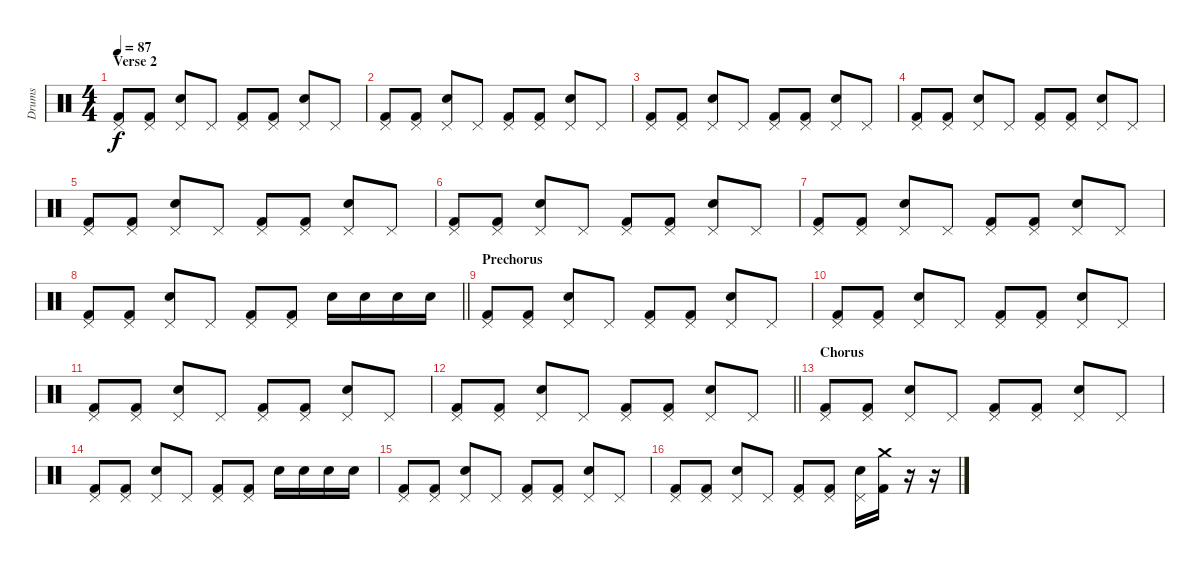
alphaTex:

\track ("Drums" "Drums") {instrument percussion}
\staff {score}
\articulation defaults
\ts (4 4)
\section ("" "Verse 2")
\tempo 87
\clef neutral
\ks c
("Pedal Hi-Hat (hit)" "Kick (hit) 2").8{dy f} ("Pedal Hi-Hat (hit)" "Kick (hit) 2").8 ("Pedal Hi-Hat (hit)" "Snare (hit) 2").8 "Pedal Hi-Hat (hit)".8 ("Pedal Hi-Hat (hit)" "Kick (hit) 2").8 ("Pedal Hi-Hat (hit)" "Kick (hit) 2").8 ("Pedal Hi-Hat (hit)" "Snare (hit) 2").8 "Pedal Hi-Hat (hit)".8 |
("Pedal Hi-Hat (hit)" "Kick (hit) 2").8 ("Pedal Hi-Hat (hit)" "Kick (hit) 2").8 ("Pedal Hi-Hat (hit)" "Snare (hit) 2").8 "Pedal Hi-Hat (hit)".8 ("Pedal Hi-Hat (hit)" "Kick (hit) 2").8 ("Pedal Hi-Hat (hit)" "Kick (hit) 2").8 ("Pedal Hi-Hat (hit)" "Snare (hit) 2").8 "Pedal Hi-Hat (hit)".8 |
("Pedal Hi-Hat (hit)" "Kick (hit) 2").8 ("Pedal Hi-Hat (hit)" "Kick (hit) 2").8 ("Pedal Hi-Hat (hit)" "Snare (hit) 2").8 "Pedal Hi-Hat (hit)".8 ("Pedal Hi-Hat (hit)" "Kick (hit) 2").8 ("Pedal Hi-Hat (hit)" "Kick (hit) 2").8 ("Pedal Hi-Hat (hit)" "Snare (hit) 2").8 "Pedal Hi-Hat (hit)".8 |
("Pedal Hi-Hat (hit)" "Kick (hit) 2").8 ("Pedal Hi-Hat (hit)" "Kick (hit) 2").8 ("Pedal Hi-Hat (hit)" "Snare (hit) 2").8 "Pedal Hi-Hat (hit)".8 ("Pedal Hi-Hat (hit)" "Kick (hit) 2").8 ("Pedal Hi-Hat (hit)" "Kick (hit) 2").8 ("Pedal Hi-Hat (hit)" "Snare (hit) 2").8 "Pedal Hi-Hat (hit)".8 |
("Pedal Hi-Hat (hit)" "Kick (hit) 2").8 ("Pedal Hi-Hat (hit)" "Kick (hit) 2").8 ("Pedal Hi-Hat (hit)" "Snare (hit) 2").8 "Pedal Hi-Hat (hit)".8 ("Pedal Hi-Hat (hit)" "Kick (hit) 2").8 ("Pedal Hi-Hat (hit)" "Kick (hit) 2").8 ("Pedal Hi-Hat (hit)" "Snare (hit) 2").8 "Pedal Hi-Hat (hit)".8 |
("Pedal Hi-Hat (hit)" "Kick (hit) 2").8 ("Pedal Hi-Hat (hit)" "Kick (hit) 2").8 ("Pedal Hi-Hat (hit)" "Snare (hit) 2").8 "Pedal Hi-Hat (hit)".8 ("Pedal Hi-Hat (hit)" "Kick (hit) 2").8 ("Pedal Hi-Hat (hit)" "Kick (hit) 2").8 ("Pedal Hi-Hat (hit)" "Snare (hit) 2").8 "Pedal Hi-Hat (hit)".8 |
("Pedal Hi-Hat (hit)" "Kick (hit) 2").8 ("Pedal Hi-Hat (hit)" "Kick (hit) 2").8 ("Pedal Hi-Hat (hit)" "Snare (hit) 2").8 "Pedal Hi-Hat (hit)".8 ("Pedal Hi-Hat (hit)" "Kick (hit) 2").8 ("Pedal Hi-Hat (hit)" "Kick (hit) 2").8 ("Pedal Hi-Hat (hit)" "Snare (hit) 2").8 "Pedal Hi-Hat (hit)".8 |
\barLineRight lightlight
("Pedal Hi-Hat (hit)" "Kick (hit) 2").8 ("Pedal Hi-Hat (hit)" "Kick (hit) 2").8 ("Pedal Hi-Hat (hit)" "Snare (hit) 2").8 "Pedal Hi-Hat (hit)".8 ("Pedal Hi-Hat (hit)" "Kick (hit) 2").8 ("Pedal Hi-Hat (hit)" "Kick (hit) 2").8 "Snare (hit) 2".16 "Snare (hit) 2".16 "Snare (hit) 2".16 "Snare (hit) 2".16 |
\section ("" "Prechorus")
("Pedal Hi-Hat (hit)" "Kick (hit) 2").8 ("Pedal Hi-Hat (hit)" "Kick (hit) 2").8 ("Pedal Hi-Hat (hit)" "Snare (hit) 2").8 "Pedal Hi-Hat (hit)".8 ("Pedal Hi-Hat (hit)" "Kick (hit) 2").8 ("Pedal Hi-Hat (hit)" "Kick (hit) 2").8 ("Pedal Hi-Hat (hit)" "Snare (hit) 2").8 "Pedal Hi-Hat (hit)".8 |
("Pedal Hi-Hat (hit)" "Kick (hit) 2").8 ("Pedal Hi-Hat (hit)" "Kick (hit) 2").8 ("Pedal Hi-Hat (hit)" "Snare (hit) 2").8 "Pedal Hi-Hat (hit)".8 ("Pedal Hi-Hat (hit)" "Kick (hit) 2").8 ("Pedal Hi-Hat (hit)" "Kick (hit) 2").8 ("Pedal Hi-Hat (hit)" "Snare (hit) 2").8 "Pedal Hi-Hat (hit)".8 |
("Pedal Hi-Hat (hit)" "Kick (hit) 2").8 ("Pedal Hi-Hat (hit)" "Kick (hit) 2").8 ("Pedal Hi-Hat (hit)" "Snare (hit) 2").8 "Pedal Hi-Hat (hit)".8 ("Pedal Hi-Hat (hit)" "Kick (hit) 2").8 ("Pedal Hi-Hat (hit)" "Kick (hit) 2").8 ("Pedal Hi-Hat (hit)" "Snare (hit) 2").8 "Pedal Hi-Hat (hit)".8 |
\barLineRight lightlight
("Pedal Hi-Hat (hit)" "Kick (hit) 2").8 ("Pedal Hi-Hat (hit)" "Kick (hit) 2").8 ("Pedal Hi-Hat (hit)" "Snare (hit) 2").8 "Pedal Hi-Hat (hit)".8 ("Pedal Hi-Hat (hit)" "Kick (hit) 2").8 ("Pedal Hi-Hat (hit)" "Kick (hit) 2").8 ("Pedal Hi-Hat (hit)" "Snare (hit) 2").8 "Pedal Hi-Hat (hit)".8 |
\section ("" "Chorus")
("Pedal Hi-Hat (hit)" "Kick (hit) 2").8 ("Pedal Hi-Hat (hit)" "Kick (hit) 2").8 ("Pedal Hi-Hat (hit)" "Snare (hit) 2").8 "Pedal Hi-Hat (hit)".8 ("Pedal Hi-Hat (hit)" "Kick (hit) 2").8 ("Pedal Hi-Hat (hit)" "Kick (hit) 2").8 ("Pedal Hi-Hat (hit)" "Snare (hit) 2").8 "Pedal Hi-Hat (hit)".8 |
("Pedal Hi-Hat (hit)" "Kick (hit) 2").8 ("Pedal Hi-Hat (hit)" "Kick (hit) 2").8 ("Pedal Hi-Hat (hit)" "Snare (hit) 2").8 "Pedal Hi-Hat (hit)".8 ("Pedal Hi-Hat (hit)" "Kick (hit) 2").8 ("Pedal Hi-Hat (hit)" "Kick (hit) 2").8 "Snare (hit) 2".16 "Snare (hit) 2".16 "Snare (hit) 2".16 "Snare (hit) 2".16 |
("Pedal Hi-Hat (hit)" "Kick (hit) 2").8 ("Pedal Hi-Hat (hit)" "Kick (hit) 2").8 ("Pedal Hi-Hat (hit)" "Snare (hit) 2").8 "Pedal Hi-Hat (hit)".8 ("Pedal Hi-Hat (hit)" "Kick (hit) 2").8 ("Pedal Hi-Hat (hit)" "Kick (hit) 2").8 ("Pedal Hi-Hat (hit)" "Snare (hit) 2").8 "Pedal Hi-Hat (hit)".8 |
("Pedal Hi-Hat (hit)" "Kick (hit) 2").8 ("Pedal Hi-Hat (hit)" "Kick (hit) 2").8 ("Pedal Hi-Hat (hit)" "Snare (hit) 2").8 "Pedal Hi-Hat (hit)".8 ("Pedal Hi-Hat (hit)" "Kick (hit) 2").8 ("Pedal Hi-Hat (hit)" "Kick (hit) 2").8 ("Pedal Hi-Hat (hit)" "Snare (hit) 2").16 ("Crash medium (hit)" "Kick (hit) 2").16 r.16 r.16
